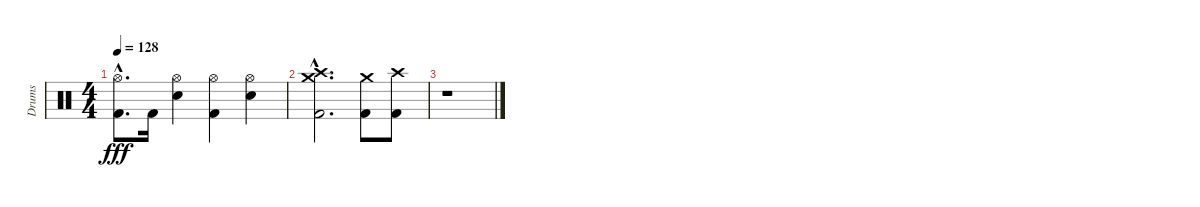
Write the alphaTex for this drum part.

\track ("Drums" "Drums") {instrument percussion}
\staff {score}
\articulation defaults
\ts (4 4)
\tempo 128
\clef neutral
\ks c
("Hi-Hat (open)" "Kick (hit) 2"{hac}).8{d dy fff} "Kick (hit) 2".16 ("Hi-Hat (open)" "Snare (hit) 2").4 ("Hi-Hat (open)" "Kick (hit) 2").4 ("Hi-Hat (open)" "Snare (hit) 2").4 |
("Crash high (hit)"{hac} "Crash medium (hit)"{hac} "Kick (hit) 2"{hac}).2{d} ("Crash medium (hit)" "Kick (hit) 2").8 ("Crash high (hit)" "Kick (hit) 2").8 |
r.1
